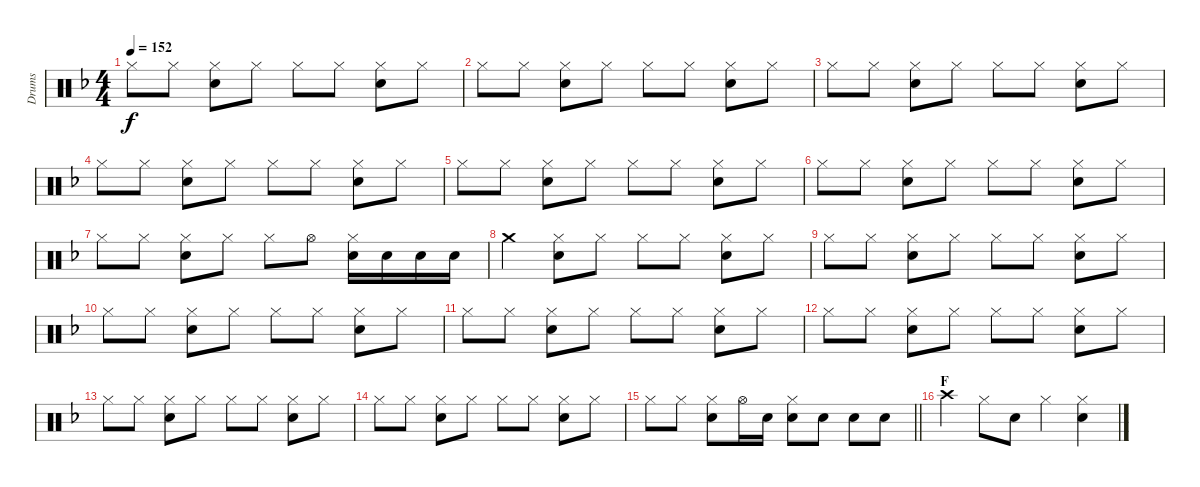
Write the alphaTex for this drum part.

\track ("Drums" "Drums") {instrument percussion}
\staff {score}
\articulation defaults
\ts (4 4)
\tempo 152
\clef neutral
\ks f "Hi-Hat (closed)".8{dy f} "Hi-Hat (closed)".8
("Hi-Hat (closed)" "Snare (hit) 2").8 "Hi-Hat (closed)".8 "Hi-Hat (closed)".8 "Hi-Hat (closed)".8 ("Hi-Hat (closed)" "Snare (hit) 2").8 "Hi-Hat (closed)".8 |
"Hi-Hat (closed)".8 "Hi-Hat (closed)".8 ("Hi-Hat (closed)" "Snare (hit) 2").8 "Hi-Hat (closed)".8 "Hi-Hat (closed)".8 "Hi-Hat (closed)".8 ("Hi-Hat (closed)" "Snare (hit) 2").8 "Hi-Hat (closed)".8 |
"Hi-Hat (closed)".8 "Hi-Hat (closed)".8 ("Hi-Hat (closed)" "Snare (hit) 2").8 "Hi-Hat (closed)".8 "Hi-Hat (closed)".8 "Hi-Hat (closed)".8 ("Hi-Hat (closed)" "Snare (hit) 2").8 "Hi-Hat (closed)".8 |
"Hi-Hat (closed)".8 "Hi-Hat (closed)".8 ("Hi-Hat (closed)" "Snare (hit) 2").8 "Hi-Hat (closed)".8 "Hi-Hat (closed)".8 "Hi-Hat (closed)".8 ("Hi-Hat (closed)" "Snare (hit) 2").8 "Hi-Hat (closed)".8 |
"Hi-Hat (closed)".8 "Hi-Hat (closed)".8 ("Hi-Hat (closed)" "Snare (hit) 2").8 "Hi-Hat (closed)".8 "Hi-Hat (closed)".8 "Hi-Hat (closed)".8 ("Hi-Hat (closed)" "Snare (hit) 2").8 "Hi-Hat (closed)".8 |
"Hi-Hat (closed)".8 "Hi-Hat (closed)".8 ("Hi-Hat (closed)" "Snare (hit) 2").8 "Hi-Hat (closed)".8 "Hi-Hat (closed)".8 "Hi-Hat (closed)".8 ("Hi-Hat (closed)" "Snare (hit) 2").8 "Hi-Hat (closed)".8 |
"Hi-Hat (closed)".8 "Hi-Hat (closed)".8 ("Hi-Hat (closed)" "Snare (hit) 2").8 "Hi-Hat (closed)".8 "Hi-Hat (closed)".8 "Hi-Hat (open)".8 ("Hi-Hat (closed)" "Snare (hit) 2").16 "Snare (hit) 2".16 "Snare (hit) 2".16 "Snare (hit) 2".16 |
"Crash medium (hit)".4 ("Hi-Hat (closed)" "Snare (hit) 2").8 "Hi-Hat (closed)".8 "Hi-Hat (closed)".8 "Hi-Hat (closed)".8 ("Hi-Hat (closed)" "Snare (hit) 2").8 "Hi-Hat (closed)".8 |
"Hi-Hat (closed)".8 "Hi-Hat (closed)".8 ("Hi-Hat (closed)" "Snare (hit) 2").8 "Hi-Hat (closed)".8 "Hi-Hat (closed)".8 "Hi-Hat (closed)".8 ("Hi-Hat (closed)" "Snare (hit) 2").8 "Hi-Hat (closed)".8 |
"Hi-Hat (closed)".8 "Hi-Hat (closed)".8 ("Hi-Hat (closed)" "Snare (hit) 2").8 "Hi-Hat (closed)".8 "Hi-Hat (closed)".8 "Hi-Hat (closed)".8 ("Hi-Hat (closed)" "Snare (hit) 2").8 "Hi-Hat (closed)".8 |
"Hi-Hat (closed)".8 "Hi-Hat (closed)".8 ("Hi-Hat (closed)" "Snare (hit) 2").8 "Hi-Hat (closed)".8 "Hi-Hat (closed)".8 "Hi-Hat (closed)".8 ("Hi-Hat (closed)" "Snare (hit) 2").8 "Hi-Hat (closed)".8 |
"Hi-Hat (closed)".8 "Hi-Hat (closed)".8 ("Hi-Hat (closed)" "Snare (hit) 2").8 "Hi-Hat (closed)".8 "Hi-Hat (closed)".8 "Hi-Hat (closed)".8 ("Hi-Hat (closed)" "Snare (hit) 2").8 "Hi-Hat (closed)".8 |
"Hi-Hat (closed)".8 "Hi-Hat (closed)".8 ("Hi-Hat (closed)" "Snare (hit) 2").8 "Hi-Hat (closed)".8 "Hi-Hat (closed)".8 "Hi-Hat (closed)".8 ("Hi-Hat (closed)" "Snare (hit) 2").8 "Hi-Hat (closed)".8 |
"Hi-Hat (closed)".8 "Hi-Hat (closed)".8 ("Hi-Hat (closed)" "Snare (hit) 2").8 "Hi-Hat (closed)".8 "Hi-Hat (closed)".8 "Hi-Hat (closed)".8 ("Hi-Hat (closed)" "Snare (hit) 2").8 "Hi-Hat (closed)".8 |
\barLineRight lightlight "Hi-Hat (closed)".8 "Hi-Hat (closed)".8
("Hi-Hat (closed)" "Snare (hit) 2").8 "Hi-Hat (open)".16 "Snare (hit) 2".16 ("Snare (hit) 2" "Hi-Hat (closed)").8 "Snare (hit) 2".8 "Snare (hit) 2".8 "Snare (hit) 2".8 |
\section ("" "F")
"Crash high (hit)".4 "Hi-Hat (closed)".8 "Snare (hit) 2".8 "Hi-Hat (closed)".4 ("Hi-Hat (closed)" "Snare (hit) 2").4
